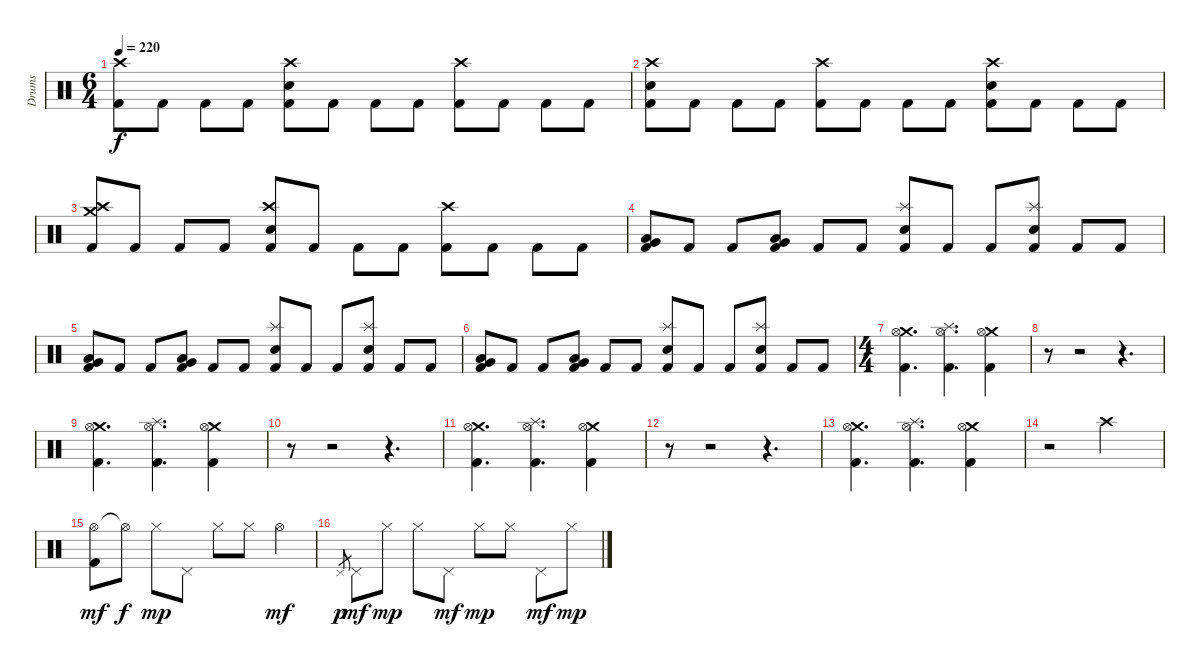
\bracketExtendMode groupsimilarinstruments
\otherSystemsTrackNameOrientation horizontal
\track ("Drumkit" "Drums") {instrument percussion}
\staff {score}
\articulation defaults
\ts (6 4)
\tempo 220
\clef neutral
\ks c
("Crash high (hit)" "Kick (hit) 2").8{dy f beam Down} "Kick (hit) 2".8{beam Down} "Kick (hit) 2".8{beam Down} "Kick (hit) 2".8{beam Down} ("Crash high (hit)" "Snare (hit) 2" "Kick (hit) 2").8{beam Down} "Kick (hit) 2".8{beam Down} "Kick (hit) 2".8{beam Down} "Kick (hit) 2".8{beam Down} ("Crash high (hit)" "Kick (hit) 2").8{beam Down} "Kick (hit) 2".8{beam Down} "Kick (hit) 2".8{beam Down} "Kick (hit) 2".8{beam Down} |
("Crash high (hit)" "Snare (hit) 2" "Kick (hit) 2").8{beam Down} "Kick (hit) 2".8{beam Down} "Kick (hit) 2".8{beam Down} "Kick (hit) 2".8{beam Down} ("Crash high (hit)" "Kick (hit) 2").8{beam Down} "Kick (hit) 2".8{beam Down} "Kick (hit) 2".8{beam Down} "Kick (hit) 2".8{beam Down} ("Crash high (hit)" "Snare (hit) 2" "Kick (hit) 2").8{beam Down} "Kick (hit) 2".8{beam Down} "Kick (hit) 2".8{beam Down} "Kick (hit) 2".8{beam Down} |
("Crash medium (hit)" "Crash high (hit)" "Kick (hit) 2").8{beam Up} "Kick (hit) 2".8{beam Up} "Kick (hit) 2".8{beam Up} "Kick (hit) 2".8{beam Up} ("Crash high (hit)" "Snare (hit) 2" "Kick (hit) 2").8{beam Up} "Kick (hit) 2".8{beam Up} "Kick (hit) 2".8{beam Down} "Kick (hit) 2".8{beam Down} ("Crash high (hit)" "Kick (hit) 2").8{beam Down} "Kick (hit) 2".8{beam Down} "Kick (hit) 2".8{beam Down} "Kick (hit) 2".8{beam Down} |
("Very Low Tom (hit)" "Low Tom (hit)" "Kick (hit) 2").8{beam Up} "Kick (hit) 2".8{beam Up} "Kick (hit) 2".8{beam Up} ("Very Low Tom (hit)" "Low Tom (hit)" "Kick (hit) 2").8{beam Up} "Kick (hit) 2".8{beam Up} "Kick (hit) 2".8{beam Up} ("Splash (hit)" "Snare (hit) 2" "Kick (hit) 2").8{beam Up} "Kick (hit) 2".8{beam Up} "Kick (hit) 2".8{beam Up} ("Splash (hit)" "Snare (hit) 2" "Kick (hit) 2").8{beam Up} "Kick (hit) 2".8{beam Up} "Kick (hit) 2".8{beam Up} |
("Very Low Tom (hit)" "Low Tom (hit)" "Kick (hit) 2").8{beam Up} "Kick (hit) 2".8{beam Up} "Kick (hit) 2".8{beam Up} ("Very Low Tom (hit)" "Low Tom (hit)" "Kick (hit) 2").8{beam Up} "Kick (hit) 2".8{beam Up} "Kick (hit) 2".8{beam Up} ("Splash (hit)" "Snare (hit) 2" "Kick (hit) 2").8{beam Up} "Kick (hit) 2".8{beam Up} "Kick (hit) 2".8{beam Up} ("Splash (hit)" "Snare (hit) 2" "Kick (hit) 2").8{beam Up} "Kick (hit) 2".8{beam Up} "Kick (hit) 2".8{beam Up} |
("Very Low Tom (hit)" "Low Tom (hit)" "Kick (hit) 2").8{beam Up} "Kick (hit) 2".8{beam Up} "Kick (hit) 2".8{beam Up} ("Very Low Tom (hit)" "Low Tom (hit)" "Kick (hit) 2").8{beam Up} "Kick (hit) 2".8{beam Up} "Kick (hit) 2".8{beam Up} ("Splash (hit)" "Snare (hit) 2" "Kick (hit) 2").8{beam Up} "Kick (hit) 2".8{beam Up} "Kick (hit) 2".8{beam Up} ("Splash (hit)" "Snare (hit) 2" "Kick (hit) 2").8{beam Up} "Kick (hit) 2".8{beam Up} "Kick (hit) 2".8{beam Up} |
\ts (4 4)
("Crash medium (hit)" "Hi-Hat (open)" "Kick (hit) 2").4{d beam Down} ("Splash (hit)" "Hi-Hat (open)" "Kick (hit) 2").4{d beam Down} ("Crash medium (hit)" "Hi-Hat (open)" "Kick (hit) 2").4{beam Down} |
r.8{beam Down} r.2{beam Down} r.4{d beam Down} |
("Crash medium (hit)" "Hi-Hat (open)" "Kick (hit) 2").4{d beam Down} ("Splash (hit)" "Hi-Hat (open)" "Kick (hit) 2").4{d beam Down} ("Crash medium (hit)" "Hi-Hat (open)" "Kick (hit) 2").4{beam Down} |
r.8{beam Down} r.2{beam Down} r.4{d beam Down} |
("Crash medium (hit)" "Hi-Hat (open)" "Kick (hit) 2").4{d beam Down} ("Splash (hit)" "Hi-Hat (open)" "Kick (hit) 2").4{d beam Down} ("Crash medium (hit)" "Hi-Hat (open)" "Kick (hit) 2").4{beam Down} |
r.8{beam Down} r.2{beam Down} r.4{d beam Down} |
("Crash medium (hit)" "Hi-Hat (open)" "Kick (hit) 2").4{d beam Down} ("Splash (hit)" "Hi-Hat (open)" "Kick (hit) 2").4{d beam Down} ("Crash medium (hit)" "Hi-Hat (open)" "Kick (hit) 2").4{beam Down} |
r.2{beam Down} "Crash high (hit)".2{beam Down} |
("Hi-Hat (open)" "Kick (hit) 2").8{dy mf beam Down} "Hi-Hat (open)"{t}.8{dy f beam Down} "Hi-Hat (closed)".8{dy mp beam Down} "Pedal Hi-Hat (hit)".8{beam Down} "Hi-Hat (closed)".8{beam Down} "Hi-Hat (closed)".8{beam Down} "Hi-Hat (open)".4{dy mf beam Down} |
"Pedal Hi-Hat (hit)".8{gr dy p beam Up} "Pedal Hi-Hat (hit)".8{dy mf beam Down} "Hi-Hat (closed)".8{dy mp beam Down} "Hi-Hat (closed)".8{beam Down} "Pedal Hi-Hat (hit)".8{dy mf beam Down} "Hi-Hat (closed)".8{dy mp beam Down} "Hi-Hat (closed)".8{beam Down} "Pedal Hi-Hat (hit)".8{dy mf beam Down} "Hi-Hat (closed)".8{dy mp beam Down}
